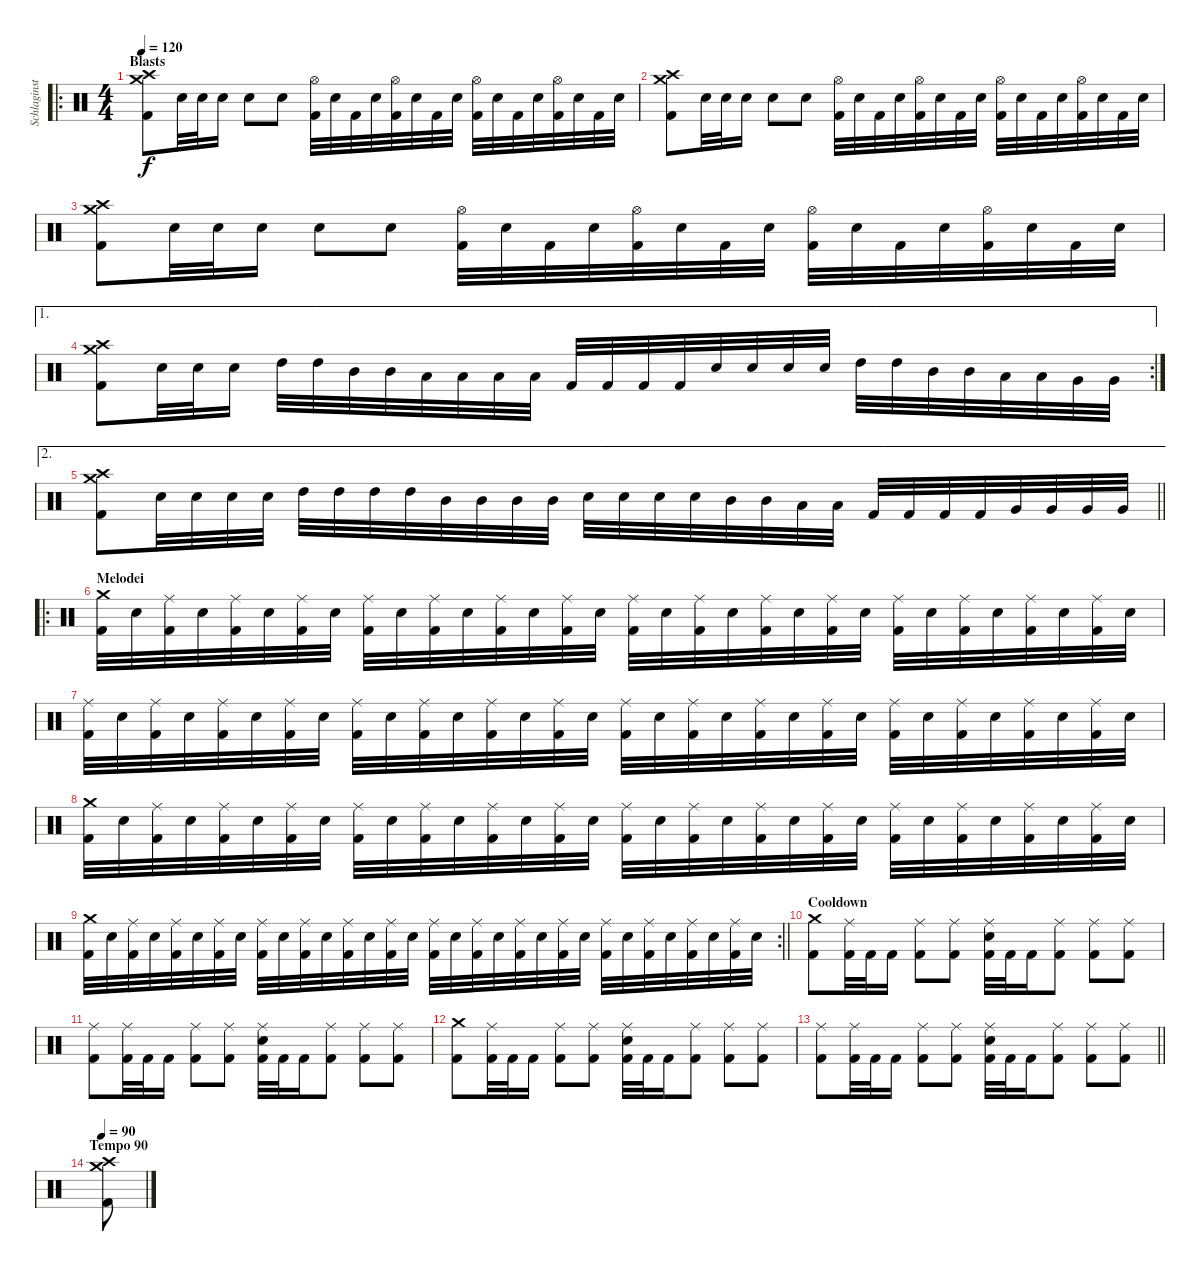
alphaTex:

\track ("Schlaginstrumente - Auswahl" "Schlaginst") {instrument percussion}
\staff {score}
\articulation defaults
\ro
\ts (4 4)
\section ("" "Blasts")
\tempo 120
\clef neutral
\ks c
("Crash high (hit)" "Crash medium (hit)" "Kick (hit) 2").8{dy f} "Electric Snare (hit)".32 "Electric Snare (hit)".32 "Electric Snare (hit)".16 "Electric Snare (hit)".8 "Electric Snare (hit)".8 ("Hi-Hat (open)" "Kick (hit) 2").32 "Electric Snare (hit)".32 "Kick (hit) 2".32 "Electric Snare (hit)".32 ("Hi-Hat (open)" "Kick (hit) 2").32 "Electric Snare (hit)".32 "Kick (hit) 2".32 "Electric Snare (hit)".32 ("Hi-Hat (open)" "Kick (hit) 2").32 "Electric Snare (hit)".32 "Kick (hit) 2".32 "Electric Snare (hit)".32 ("Hi-Hat (open)" "Kick (hit) 2").32 "Electric Snare (hit)".32 "Kick (hit) 2".32 "Electric Snare (hit)".32 |
("Crash high (hit)" "Crash medium (hit)" "Kick (hit) 2").8 "Electric Snare (hit)".32 "Electric Snare (hit)".32 "Electric Snare (hit)".16 "Electric Snare (hit)".8 "Electric Snare (hit)".8 ("Hi-Hat (open)" "Kick (hit) 2").32 "Electric Snare (hit)".32 "Kick (hit) 2".32 "Electric Snare (hit)".32 ("Hi-Hat (open)" "Kick (hit) 2").32 "Electric Snare (hit)".32 "Kick (hit) 2".32 "Electric Snare (hit)".32 ("Hi-Hat (open)" "Kick (hit) 2").32 "Electric Snare (hit)".32 "Kick (hit) 2".32 "Electric Snare (hit)".32 ("Hi-Hat (open)" "Kick (hit) 2").32 "Electric Snare (hit)".32 "Kick (hit) 2".32 "Electric Snare (hit)".32 |
("Crash high (hit)" "Crash medium (hit)" "Kick (hit) 2").8 "Electric Snare (hit)".32 "Electric Snare (hit)".32 "Electric Snare (hit)".16 "Electric Snare (hit)".8 "Electric Snare (hit)".8 ("Hi-Hat (open)" "Kick (hit) 2").32 "Electric Snare (hit)".32 "Kick (hit) 2".32 "Electric Snare (hit)".32 ("Hi-Hat (open)" "Kick (hit) 2").32 "Electric Snare (hit)".32 "Kick (hit) 2".32 "Electric Snare (hit)".32 ("Hi-Hat (open)" "Kick (hit) 2").32 "Electric Snare (hit)".32 "Kick (hit) 2".32 "Electric Snare (hit)".32 ("Hi-Hat (open)" "Kick (hit) 2").32 "Electric Snare (hit)".32 "Kick (hit) 2".32 "Electric Snare (hit)".32 |
\ae 1
\rc 2
("Crash high (hit)" "Crash medium (hit)" "Kick (hit) 2").8 "Electric Snare (hit)".32 "Electric Snare (hit)".32 "Electric Snare (hit)".16 "High Tom (hit)".32 "High Tom (hit)".32 "Mid Tom (hit)".32 "Mid Tom (hit)".32 "Low Tom (hit)".32 "Low Tom (hit)".32 "Low Tom (hit)".32 "Low Tom (hit)".32 "Kick (hit) 2".32 "Kick (hit) 2".32 "Kick (hit) 2".32 "Kick (hit) 2".32 "Electric Snare (hit)".32 "Electric Snare (hit)".32 "Electric Snare (hit)".32 "Electric Snare (hit)".32 "High Tom (hit)".32 "High Tom (hit)".32 "Mid Tom (hit)".32 "Mid Tom (hit)".32 "Low Tom (hit)".32 "Low Tom (hit)".32 "Very Low Tom (hit)".32 "Very Low Tom (hit)".32 |
\ae 2
\barLineRight lightlight
("Crash medium (hit)" "Crash high (hit)" "Kick (hit) 2").8 "Electric Snare (hit)".32 "Electric Snare (hit)".32 "Electric Snare (hit)".32 "Electric Snare (hit)".32 "High Tom (hit)".32 "High Tom (hit)".32 "High Tom (hit)".32 "High Tom (hit)".32 "Mid Tom (hit)".32 "Mid Tom (hit)".32 "Mid Tom (hit)".32 "Mid Tom (hit)".32 "Electric Snare (hit)".32 "Electric Snare (hit)".32 "Electric Snare (hit)".32 "Electric Snare (hit)".32 "Mid Tom (hit)".32 "Mid Tom (hit)".32 "Low Tom (hit)".32 "Low Tom (hit)".32 "Kick (hit) 2".32 "Kick (hit) 2".32 "Kick (hit) 2".32 "Kick (hit) 2".32 "Very Low Tom (hit)".32 "Very Low Tom (hit)".32 "Very Low Tom (hit)".32 "Very Low Tom (hit)".32 |
\ro
\section ("" "Melodei")
("Crash medium (hit)" "Kick (hit) 2").32 "Electric Snare (hit)".32 ("Ride (middle)" "Kick (hit) 2").32 "Electric Snare (hit)".32 ("Ride (middle)" "Kick (hit) 2").32 "Electric Snare (hit)".32 ("Ride (middle)" "Kick (hit) 2").32 "Electric Snare (hit)".32 ("Ride (middle)" "Kick (hit) 2").32 "Electric Snare (hit)".32 ("Ride (middle)" "Kick (hit) 2").32 "Electric Snare (hit)".32 ("Ride (middle)" "Kick (hit) 2").32 "Electric Snare (hit)".32 ("Ride (middle)" "Kick (hit) 2").32 "Electric Snare (hit)".32 ("Ride (middle)" "Kick (hit) 2").32 "Electric Snare (hit)".32 ("Ride (middle)" "Kick (hit) 2").32 "Electric Snare (hit)".32 ("Ride (middle)" "Kick (hit) 2").32 "Electric Snare (hit)".32 ("Ride (middle)" "Kick (hit) 2").32 "Electric Snare (hit)".32 ("Ride (middle)" "Kick (hit) 2").32 "Electric Snare (hit)".32 ("Ride (middle)" "Kick (hit) 2").32 "Electric Snare (hit)".32 ("Ride (middle)" "Kick (hit) 2").32 "Electric Snare (hit)".32 ("Ride (middle)" "Kick (hit) 2").32 "Electric Snare (hit)".32 |
("Ride (middle)" "Kick (hit) 2").32 "Electric Snare (hit)".32 ("Ride (middle)" "Kick (hit) 2").32 "Electric Snare (hit)".32 ("Ride (middle)" "Kick (hit) 2").32 "Electric Snare (hit)".32 ("Ride (middle)" "Kick (hit) 2").32 "Electric Snare (hit)".32 ("Ride (middle)" "Kick (hit) 2").32 "Electric Snare (hit)".32 ("Ride (middle)" "Kick (hit) 2").32 "Electric Snare (hit)".32 ("Ride (middle)" "Kick (hit) 2").32 "Electric Snare (hit)".32 ("Ride (middle)" "Kick (hit) 2").32 "Electric Snare (hit)".32 ("Ride (middle)" "Kick (hit) 2").32 "Electric Snare (hit)".32 ("Ride (middle)" "Kick (hit) 2").32 "Electric Snare (hit)".32 ("Ride (middle)" "Kick (hit) 2").32 "Electric Snare (hit)".32 ("Ride (middle)" "Kick (hit) 2").32 "Electric Snare (hit)".32 ("Ride (middle)" "Kick (hit) 2").32 "Electric Snare (hit)".32 ("Ride (middle)" "Kick (hit) 2").32 "Electric Snare (hit)".32 ("Ride (middle)" "Kick (hit) 2").32 "Electric Snare (hit)".32 ("Ride (middle)" "Kick (hit) 2").32 "Electric Snare (hit)".32 |
("Crash medium (hit)" "Kick (hit) 2").32 "Electric Snare (hit)".32 ("Ride (middle)" "Kick (hit) 2").32 "Electric Snare (hit)".32 ("Ride (middle)" "Kick (hit) 2").32 "Electric Snare (hit)".32 ("Ride (middle)" "Kick (hit) 2").32 "Electric Snare (hit)".32 ("Ride (middle)" "Kick (hit) 2").32 "Electric Snare (hit)".32 ("Ride (middle)" "Kick (hit) 2").32 "Electric Snare (hit)".32 ("Ride (middle)" "Kick (hit) 2").32 "Electric Snare (hit)".32 ("Ride (middle)" "Kick (hit) 2").32 "Electric Snare (hit)".32 ("Ride (middle)" "Kick (hit) 2").32 "Electric Snare (hit)".32 ("Ride (middle)" "Kick (hit) 2").32 "Electric Snare (hit)".32 ("Ride (middle)" "Kick (hit) 2").32 "Electric Snare (hit)".32 ("Ride (middle)" "Kick (hit) 2").32 "Electric Snare (hit)".32 ("Ride (middle)" "Kick (hit) 2").32 "Electric Snare (hit)".32 ("Ride (middle)" "Kick (hit) 2").32 "Electric Snare (hit)".32 ("Ride (middle)" "Kick (hit) 2").32 "Electric Snare (hit)".32 ("Ride (middle)" "Kick (hit) 2").32 "Electric Snare (hit)".32 |
\rc 2
\barLineRight lightlight
("Crash medium (hit)" "Kick (hit) 2").32 "Electric Snare (hit)".32 ("Ride (middle)" "Kick (hit) 2").32 "Electric Snare (hit)".32 ("Ride (middle)" "Kick (hit) 2").32 "Electric Snare (hit)".32 ("Ride (middle)" "Kick (hit) 2").32 "Electric Snare (hit)".32 ("Ride (middle)" "Kick (hit) 2").32 "Electric Snare (hit)".32 ("Ride (middle)" "Kick (hit) 2").32 "Electric Snare (hit)".32 ("Ride (middle)" "Kick (hit) 2").32 "Electric Snare (hit)".32 ("Ride (middle)" "Kick (hit) 2").32 "Electric Snare (hit)".32 ("Ride (middle)" "Kick (hit) 2").32 "Electric Snare (hit)".32 ("Ride (middle)" "Kick (hit) 2").32 "Electric Snare (hit)".32 ("Ride (middle)" "Kick (hit) 2").32 "Electric Snare (hit)".32 ("Ride (middle)" "Kick (hit) 2").32 "Electric Snare (hit)".32 ("Ride (middle)" "Kick (hit) 2").32 "Electric Snare (hit)".32 ("Ride (middle)" "Kick (hit) 2").32 "Electric Snare (hit)".32 ("Ride (middle)" "Kick (hit) 2").32 "Electric Snare (hit)".32 ("Ride (middle)" "Kick (hit) 2").32 "Electric Snare (hit)".32 |
\section ("" "Cooldown")
("Crash medium (hit)" "Kick (hit) 2").8 ("Ride (middle)" "Kick (hit) 2").32 "Kick (hit) 2".32 "Kick (hit) 2".16 ("Ride (middle)" "Kick (hit) 2").8 ("Ride (middle)" "Kick (hit) 2").8 ("Ride (middle)" "Electric Snare (hit)" "Kick (hit) 2").32 "Kick (hit) 2".32 "Kick (hit) 2".16 ("Ride (middle)" "Kick (hit) 2").8 ("Ride (middle)" "Kick (hit) 2").8 ("Ride (middle)" "Kick (hit) 2").8 |
("Ride (middle)" "Kick (hit) 2").8 ("Ride (middle)" "Kick (hit) 2").32 "Kick (hit) 2".32 "Kick (hit) 2".16 ("Ride (middle)" "Kick (hit) 2").8 ("Ride (middle)" "Kick (hit) 2").8 ("Ride (middle)" "Electric Snare (hit)" "Kick (hit) 2").32 "Kick (hit) 2".32 "Kick (hit) 2".16 ("Ride (middle)" "Kick (hit) 2").8 ("Ride (middle)" "Kick (hit) 2").8 ("Ride (middle)" "Kick (hit) 2").8 |
("Crash medium (hit)" "Kick (hit) 2").8 ("Ride (middle)" "Kick (hit) 2").32 "Kick (hit) 2".32 "Kick (hit) 2".16 ("Ride (middle)" "Kick (hit) 2").8 ("Ride (middle)" "Kick (hit) 2").8 ("Ride (middle)" "Electric Snare (hit)" "Kick (hit) 2").32 "Kick (hit) 2".32 "Kick (hit) 2".16 ("Ride (middle)" "Kick (hit) 2").8 ("Ride (middle)" "Kick (hit) 2").8 ("Ride (middle)" "Kick (hit) 2").8 |
\barLineRight lightlight
("Ride (middle)" "Kick (hit) 2").8 ("Ride (middle)" "Kick (hit) 2").32 "Kick (hit) 2".32 "Kick (hit) 2".16 ("Ride (middle)" "Kick (hit) 2").8 ("Ride (middle)" "Kick (hit) 2").8 ("Ride (middle)" "Electric Snare (hit)" "Kick (hit) 2").32 "Kick (hit) 2".32 "Kick (hit) 2".16 ("Ride (middle)" "Kick (hit) 2").8 ("Ride (middle)" "Kick (hit) 2").8 ("Ride (middle)" "Kick (hit) 2").8 |
\section ("" "Tempo 90")
\tempo 90
("Crash medium (hit)" "Crash high (hit)" "Kick (hit) 2").8
